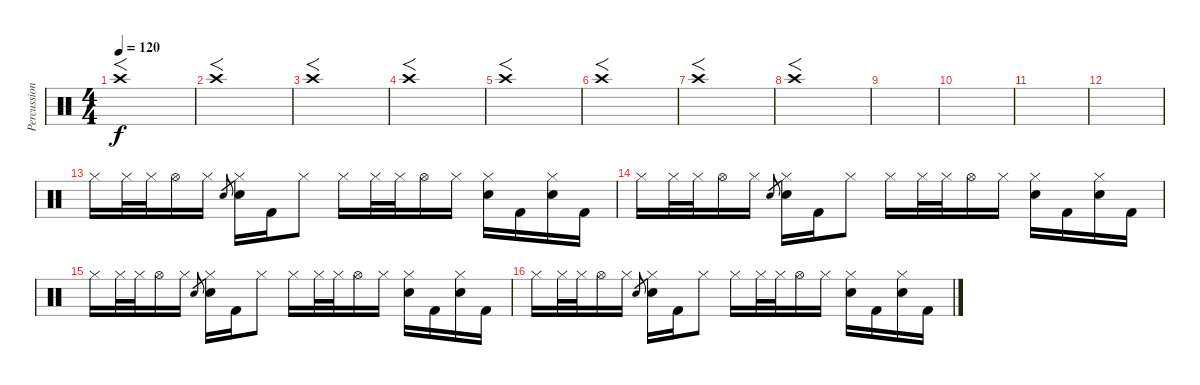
\track ("Percussion" "Percussion") {instrument percussion}
\staff {score}
\articulation defaults
\ts (4 4)
\tempo 120
\clef neutral
\ks c "Crash high (hit)".1{f dy f balance 0}
|
"Crash high (hit)".1{f balance 16} |
"Crash high (hit)".1{f balance 0} |
"Crash high (hit)".1{f balance 16} |
"Crash high (hit)".1{f balance 0} |
"Crash high (hit)".1{f balance 16} |
"Crash high (hit)".1{f balance 0} |
"Crash high (hit)".1{f balance 8} |
|
|
|
|
"Hi-Hat (closed)".16 "Hi-Hat (closed)".32 "Hi-Hat (closed)".32 "Hi-Hat (open)".16 "Hi-Hat (closed)".16 "Snare (hit) 2".8{gr} ("Snare (hit) 2" "Hi-Hat (closed)").16 "Kick (hit) 2".16 "Hi-Hat (closed)".8 "Hi-Hat (closed)".16 "Hi-Hat (closed)".32 "Hi-Hat (closed)".32 "Hi-Hat (open)".16 "Hi-Hat (closed)".16 ("Snare (hit) 2" "Hi-Hat (closed)").16 "Kick (hit) 2".16 ("Snare (hit) 2" "Hi-Hat (closed)").16 "Kick (hit) 2".16 |
"Hi-Hat (closed)".16 "Hi-Hat (closed)".32 "Hi-Hat (closed)".32 "Hi-Hat (open)".16 "Hi-Hat (closed)".16 "Snare (hit) 2".8{gr} ("Snare (hit) 2" "Hi-Hat (closed)").16 "Kick (hit) 2".16 "Hi-Hat (closed)".8 "Hi-Hat (closed)".16 "Hi-Hat (closed)".32 "Hi-Hat (closed)".32 "Hi-Hat (open)".16 "Hi-Hat (closed)".16 ("Snare (hit) 2" "Hi-Hat (closed)").16 "Kick (hit) 2".16 ("Snare (hit) 2" "Hi-Hat (closed)").16 "Kick (hit) 2".16 |
"Hi-Hat (closed)".16 "Hi-Hat (closed)".32 "Hi-Hat (closed)".32 "Hi-Hat (open)".16 "Hi-Hat (closed)".16 "Snare (hit) 2".8{gr} ("Snare (hit) 2" "Hi-Hat (closed)").16 "Kick (hit) 2".16 "Hi-Hat (closed)".8 "Hi-Hat (closed)".16 "Hi-Hat (closed)".32 "Hi-Hat (closed)".32 "Hi-Hat (open)".16 "Hi-Hat (closed)".16 ("Snare (hit) 2" "Hi-Hat (closed)").16 "Kick (hit) 2".16 ("Snare (hit) 2" "Hi-Hat (closed)").16 "Kick (hit) 2".16 |
"Hi-Hat (closed)".16 "Hi-Hat (closed)".32 "Hi-Hat (closed)".32 "Hi-Hat (open)".16 "Hi-Hat (closed)".16 "Snare (hit) 2".8{gr} ("Snare (hit) 2" "Hi-Hat (closed)").16 "Kick (hit) 2".16 "Hi-Hat (closed)".8 "Hi-Hat (closed)".16 "Hi-Hat (closed)".32 "Hi-Hat (closed)".32 "Hi-Hat (open)".16 "Hi-Hat (closed)".16 ("Snare (hit) 2" "Hi-Hat (closed)").16 "Kick (hit) 2".16 ("Snare (hit) 2" "Hi-Hat (closed)").16 "Kick (hit) 2".16
